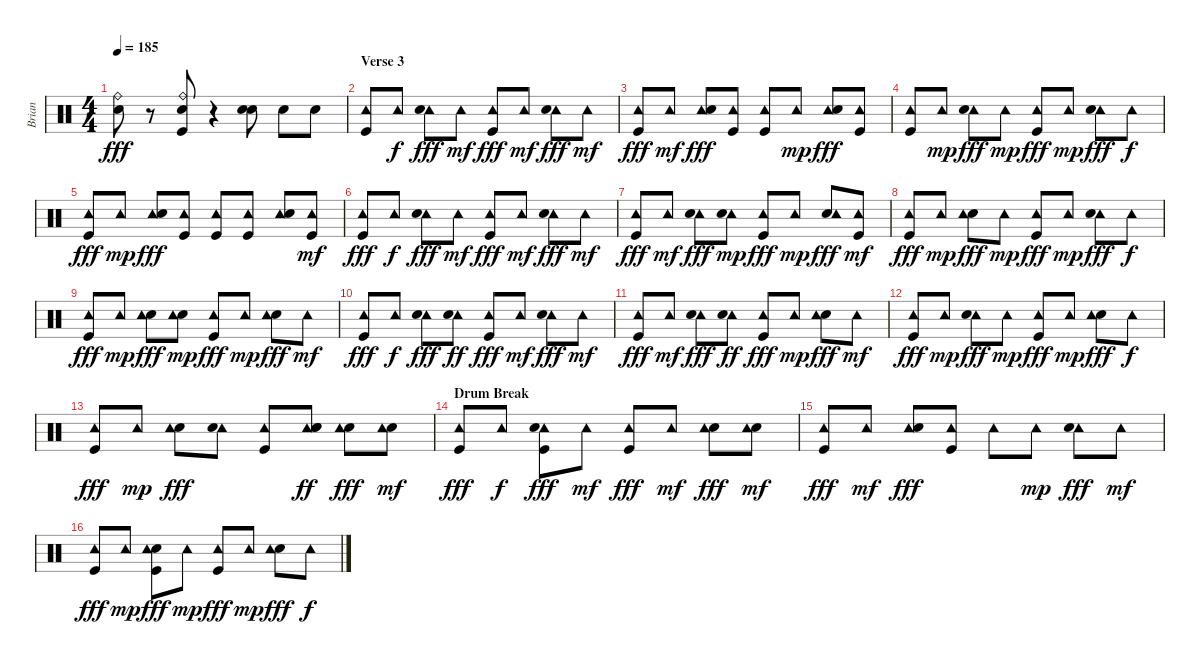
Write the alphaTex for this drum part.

\track ("Brian" "Brian") {instrument percussion}
\staff {score}
\articulation defaults
\ts (4 4)
\tempo 185
\clef neutral
\ks c
("Electric Snare (hit)" "Ride (bell)").8{dy fff} r.8 ("Ride (bell)" "Electric Snare (hit)" "Kick (hit)").8 r.4 ("Electric Snare (hit)" "Electric Snare (hit)").8 "Electric Snare (hit)".8 "Electric Snare (hit)".8 |
\section ("" "Verse 3")
("Kick (hit)" "Tambourine (hit)").8 "Tambourine (hit)".8{dy f} ("Tambourine (hit)" "Electric Snare (hit)").8{dy fff} "Tambourine (hit)".8{dy mf} ("Tambourine (hit)" "Kick (hit)").8{dy fff} "Tambourine (hit)".8{dy mf} ("Tambourine (hit)" "Electric Snare (hit)").8{dy fff} "Tambourine (hit)".8{dy mf} |
("Tambourine (hit)" "Kick (hit)").8{dy fff} "Tambourine (hit)".8{dy mf} ("Tambourine (hit)" "Electric Snare (hit)").8{dy fff} ("Tambourine (hit)" "Kick (hit)").8 ("Tambourine (hit)" "Kick (hit)").8 "Tambourine (hit)".8{dy mp} ("Tambourine (hit)" "Electric Snare (hit)").8{dy fff} ("Tambourine (hit)" "Kick (hit)").8 |
("Tambourine (hit)" "Kick (hit)").8 "Tambourine (hit)".8{dy mp} ("Tambourine (hit)" "Electric Snare (hit)").8{dy fff} "Tambourine (hit)".8{dy mp} ("Tambourine (hit)" "Kick (hit)").8{dy fff} "Tambourine (hit)".8{dy mp} ("Tambourine (hit)" "Electric Snare (hit)").8{dy fff} "Tambourine (hit)".8{dy f} |
("Tambourine (hit)" "Kick (hit)").8{dy fff} "Tambourine (hit)".8{dy mp} ("Tambourine (hit)" "Electric Snare (hit)").8{dy fff} ("Tambourine (hit)" "Kick (hit)").8 ("Kick (hit)" "Tambourine (hit)").8 ("Tambourine (hit)" "Kick (hit)").8 ("Tambourine (hit)" "Electric Snare (hit)").8 ("Kick (hit)" "Tambourine (hit)").8{dy mf} |
("Tambourine (hit)" "Kick (hit)").8{dy fff} "Tambourine (hit)".8{dy f} ("Tambourine (hit)" "Electric Snare (hit)").8{dy fff} "Tambourine (hit)".8{dy mf} ("Tambourine (hit)" "Kick (hit)").8{dy fff} "Tambourine (hit)".8{dy mf} ("Tambourine (hit)" "Electric Snare (hit)").8{dy fff} "Tambourine (hit)".8{dy mf} |
("Kick (hit)" "Tambourine (hit)").8{dy fff} "Tambourine (hit)".8{dy mf} ("Tambourine (hit)" "Electric Snare (hit)").8{dy fff} ("Tambourine (hit)" "Electric Snare (hit)").8{dy mp} ("Tambourine (hit)" "Kick (hit)").8{dy fff} "Tambourine (hit)".8{dy mp} ("Electric Snare (hit)" "Tambourine (hit)").8{dy fff} ("Kick (hit)" "Tambourine (hit)").8{dy mf} |
("Tambourine (hit)" "Kick (hit)").8{dy fff} "Tambourine (hit)".8{dy mp} ("Electric Snare (hit)" "Tambourine (hit)").8{dy fff} "Tambourine (hit)".8{dy mp} ("Tambourine (hit)" "Kick (hit)").8{dy fff} "Tambourine (hit)".8{dy mp} ("Tambourine (hit)" "Electric Snare (hit)").8{dy fff} "Tambourine (hit)".8{dy f} |
("Tambourine (hit)" "Kick (hit)").8{dy fff} "Tambourine (hit)".8{dy mp} ("Electric Snare (hit)" "Tambourine (hit)").8{dy fff} ("Electric Snare (hit)" "Tambourine (hit)").8{dy mp} ("Tambourine (hit)" "Kick (hit)").8{dy fff} "Tambourine (hit)".8{dy mp} ("Electric Snare (hit)" "Tambourine (hit)").8{dy fff} "Tambourine (hit)".8{dy mf} |
("Kick (hit)" "Tambourine (hit)").8{dy fff} "Tambourine (hit)".8{dy f} ("Tambourine (hit)" "Electric Snare (hit)").8{dy fff} ("Tambourine (hit)" "Electric Snare (hit)").8{dy ff} ("Tambourine (hit)" "Kick (hit)").8{dy fff} "Tambourine (hit)".8{dy mf} ("Tambourine (hit)" "Electric Snare (hit)").8{dy fff} "Tambourine (hit)".8{dy mf} |
("Tambourine (hit)" "Kick (hit)").8{dy fff} "Tambourine (hit)".8{dy mf} ("Tambourine (hit)" "Electric Snare (hit)").8{dy fff} ("Tambourine (hit)" "Electric Snare (hit)").8{dy ff} ("Tambourine (hit)" "Kick (hit)").8{dy fff} "Tambourine (hit)".8{dy mp} ("Electric Snare (hit)" "Tambourine (hit)").8{dy fff} "Tambourine (hit)".8{dy mf} |
("Tambourine (hit)" "Kick (hit)").8{dy fff} "Tambourine (hit)".8{dy mp} ("Tambourine (hit)" "Electric Snare (hit)").8{dy fff} "Tambourine (hit)".8{dy mp} ("Tambourine (hit)" "Kick (hit)").8{dy fff} "Tambourine (hit)".8{dy mp} ("Electric Snare (hit)" "Tambourine (hit)").8{dy fff} "Tambourine (hit)".8{dy f} |
("Tambourine (hit)" "Kick (hit)").8{dy fff} "Tambourine (hit)".8{dy mp} ("Electric Snare (hit)" "Tambourine (hit)").8{dy fff} ("Tambourine (hit)" "Electric Snare (hit)").8 ("Tambourine (hit)" "Kick (hit)").8 ("Tambourine (hit)" "Electric Snare (hit)" "Electric Snare (hit)").8{dy ff} ("Electric Snare (hit)" "Tambourine (hit)").8{dy fff} ("Electric Snare (hit)" "Tambourine (hit)").8{dy mf} |
\section ("" "Drum Break")
("Kick (hit)" "Tambourine (hit)").8{dy fff} "Tambourine (hit)".8{dy f} ("Tambourine (hit)" "Electric Snare (hit)" "Kick (hit)").8{dy fff} "Tambourine (hit)".8{dy mf} ("Kick (hit)" "Tambourine (hit)").8{dy fff} "Tambourine (hit)".8{dy mf} ("Electric Snare (hit)" "Tambourine (hit)").8{dy fff} ("Electric Snare (hit)" "Tambourine (hit)").8{dy mf} |
("Tambourine (hit)" "Kick (hit)").8{dy fff} "Tambourine (hit)".8{dy mf} ("Tambourine (hit)" "Electric Snare (hit)").8{dy fff} ("Tambourine (hit)" "Kick (hit)").8 "Tambourine (hit)".8 "Tambourine (hit)".8{dy mp} ("Tambourine (hit)" "Electric Snare (hit)").8{dy fff} "Tambourine (hit)".8{dy mf} |
("Kick (hit)" "Tambourine (hit)").8{dy fff} "Tambourine (hit)".8{dy mp} ("Electric Snare (hit)" "Tambourine (hit)" "Kick (hit)").8{dy fff} "Tambourine (hit)".8{dy mp} ("Kick (hit)" "Tambourine (hit)").8{dy fff} "Tambourine (hit)".8{dy mp} ("Electric Snare (hit)" "Tambourine (hit)").8{dy fff} "Tambourine (hit)".8{dy f}
